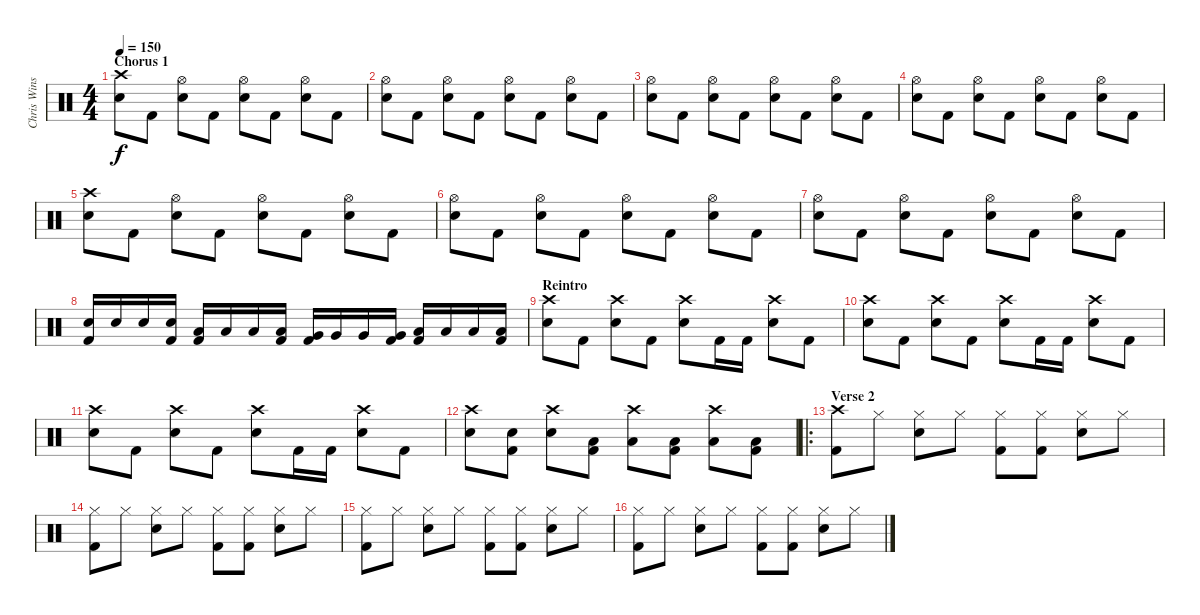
\track ("Chris Winship (Drums)" "Chris Wins") {instrument percussion}
\staff {score}
\articulation defaults
\ts (4 4)
\section ("" "Chorus 1")
\tempo 150
\clef neutral
\ks c
("Crash high (hit)" "Electric Snare (hit)").8{dy f} "Kick (hit) 2".8 ("Hi-Hat (open)" "Electric Snare (hit)").8 "Kick (hit) 2".8 ("Hi-Hat (open)" "Electric Snare (hit)").8 "Kick (hit) 2".8 ("Hi-Hat (open)" "Electric Snare (hit)").8 "Kick (hit) 2".8 |
("Hi-Hat (open)" "Electric Snare (hit)").8 "Kick (hit) 2".8 ("Hi-Hat (open)" "Electric Snare (hit)").8 "Kick (hit) 2".8 ("Hi-Hat (open)" "Electric Snare (hit)").8 "Kick (hit) 2".8 ("Hi-Hat (open)" "Electric Snare (hit)").8 "Kick (hit) 2".8 |
("Hi-Hat (open)" "Electric Snare (hit)").8 "Kick (hit) 2".8 ("Hi-Hat (open)" "Electric Snare (hit)").8 "Kick (hit) 2".8 ("Hi-Hat (open)" "Electric Snare (hit)").8 "Kick (hit) 2".8 ("Hi-Hat (open)" "Electric Snare (hit)").8 "Kick (hit) 2".8 |
("Hi-Hat (open)" "Electric Snare (hit)").8 "Kick (hit) 2".8 ("Hi-Hat (open)" "Electric Snare (hit)").8 "Kick (hit) 2".8 ("Hi-Hat (open)" "Electric Snare (hit)").8 "Kick (hit) 2".8 ("Hi-Hat (open)" "Electric Snare (hit)").8 "Kick (hit) 2".8 |
("Crash high (hit)" "Electric Snare (hit)").8 "Kick (hit) 2".8 ("Hi-Hat (open)" "Electric Snare (hit)").8 "Kick (hit) 2".8 ("Hi-Hat (open)" "Electric Snare (hit)").8 "Kick (hit) 2".8 ("Hi-Hat (open)" "Electric Snare (hit)").8 "Kick (hit) 2".8 |
("Hi-Hat (open)" "Electric Snare (hit)").8 "Kick (hit) 2".8 ("Hi-Hat (open)" "Electric Snare (hit)").8 "Kick (hit) 2".8 ("Hi-Hat (open)" "Electric Snare (hit)").8 "Kick (hit) 2".8 ("Hi-Hat (open)" "Electric Snare (hit)").8 "Kick (hit) 2".8 |
("Hi-Hat (open)" "Electric Snare (hit)").8 "Kick (hit) 2".8 ("Hi-Hat (open)" "Electric Snare (hit)").8 "Kick (hit) 2".8 ("Hi-Hat (open)" "Electric Snare (hit)").8 "Kick (hit) 2".8 ("Hi-Hat (open)" "Electric Snare (hit)").8 "Kick (hit) 2".8 |
("Electric Snare (hit)" "Kick (hit) 2").16 "Electric Snare (hit)".16 "Electric Snare (hit)".16 ("Electric Snare (hit)" "Kick (hit) 2").16 ("Low Tom (hit)" "Kick (hit) 2").16 "Low Tom (hit)".16 "Low Tom (hit)".16 ("Low Tom (hit)" "Kick (hit) 2").16 ("Very Low Tom (hit)" "Kick (hit) 2").16 "Very Low Tom (hit)".16 "Very Low Tom (hit)".16 ("Very Low Tom (hit)" "Kick (hit) 2").16 ("Low Floor Tom (hit)" "Kick (hit) 2").16 "Low Floor Tom (hit)".16 "Low Floor Tom (hit)".16 ("Low Floor Tom (hit)" "Kick (hit) 2").16 |
\section ("" "Reintro")
("Crash high (hit)" "Electric Snare (hit)").8 "Kick (hit) 2".8 ("Crash high (hit)" "Electric Snare (hit)").8 "Kick (hit) 2".8 ("Crash high (hit)" "Electric Snare (hit)").8 "Kick (hit) 2".16 "Kick (hit) 2".16 ("Crash high (hit)" "Electric Snare (hit)").8 "Kick (hit) 2".8 |
("Crash high (hit)" "Electric Snare (hit)").8 "Kick (hit) 2".8 ("Crash high (hit)" "Electric Snare (hit)").8 "Kick (hit) 2".8 ("Crash high (hit)" "Electric Snare (hit)").8 "Kick (hit) 2".16 "Kick (hit) 2".16 ("Crash high (hit)" "Electric Snare (hit)").8 "Kick (hit) 2".8 |
("Crash high (hit)" "Electric Snare (hit)").8 "Kick (hit) 2".8 ("Crash high (hit)" "Electric Snare (hit)").8 "Kick (hit) 2".8 ("Crash high (hit)" "Electric Snare (hit)").8 "Kick (hit) 2".16 "Kick (hit) 2".16 ("Crash high (hit)" "Electric Snare (hit)").8 "Kick (hit) 2".8 |
("Crash high (hit)" "Electric Snare (hit)").8 ("Electric Snare (hit)" "Kick (hit) 2").8 ("Crash high (hit)" "Electric Snare (hit)").8 ("Low Floor Tom (hit)" "Kick (hit) 2").8 ("Crash high (hit)" "Low Floor Tom (hit)").8 ("Low Floor Tom (hit)" "Kick (hit) 2").8 ("Crash high (hit)" "Low Floor Tom (hit)").8 ("Low Floor Tom (hit)" "Kick (hit) 2").8 |
\ro
\section ("" "Verse 2")
("Crash high (hit)" "Kick (hit) 2").8 "Hi-Hat (closed)".8 ("Hi-Hat (closed)" "Electric Snare (hit)").8 "Hi-Hat (closed)".8 ("Hi-Hat (closed)" "Kick (hit) 2").8 ("Hi-Hat (closed)" "Kick (hit) 2").8 ("Hi-Hat (closed)" "Electric Snare (hit)").8 "Hi-Hat (closed)".8 |
("Hi-Hat (closed)" "Kick (hit) 2").8 "Hi-Hat (closed)".8 ("Hi-Hat (closed)" "Electric Snare (hit)").8 "Hi-Hat (closed)".8 ("Hi-Hat (closed)" "Kick (hit) 2").8 ("Hi-Hat (closed)" "Kick (hit) 2").8 ("Hi-Hat (closed)" "Electric Snare (hit)").8 "Hi-Hat (closed)".8 |
("Hi-Hat (closed)" "Kick (hit) 2").8 "Hi-Hat (closed)".8 ("Hi-Hat (closed)" "Electric Snare (hit)").8 "Hi-Hat (closed)".8 ("Hi-Hat (closed)" "Kick (hit) 2").8 ("Hi-Hat (closed)" "Kick (hit) 2").8 ("Hi-Hat (closed)" "Electric Snare (hit)").8 "Hi-Hat (closed)".8 |
("Hi-Hat (closed)" "Kick (hit) 2").8 "Hi-Hat (closed)".8 ("Hi-Hat (closed)" "Electric Snare (hit)").8 "Hi-Hat (closed)".8 ("Hi-Hat (closed)" "Kick (hit) 2").8 ("Hi-Hat (closed)" "Kick (hit) 2").8 ("Hi-Hat (closed)" "Electric Snare (hit)").8 "Hi-Hat (closed)".8
